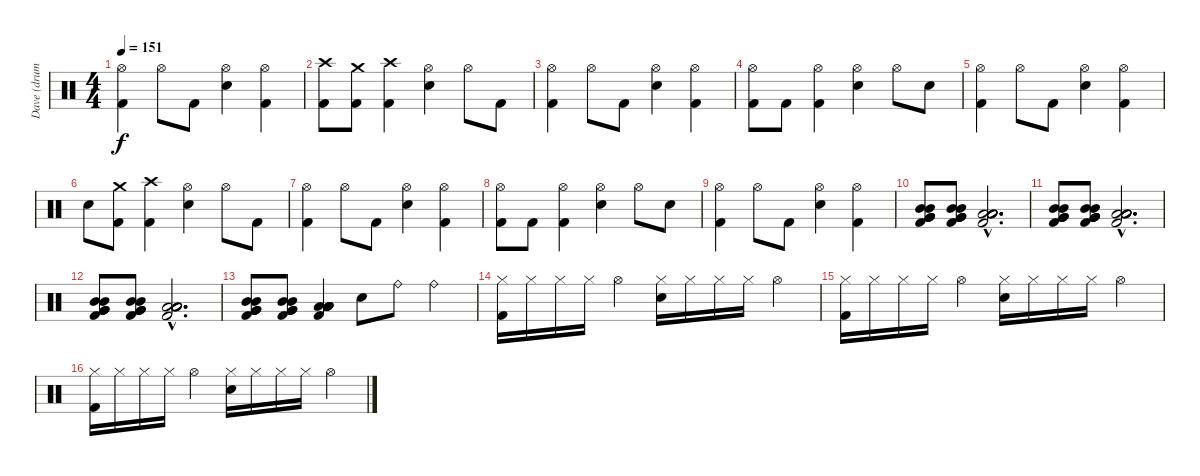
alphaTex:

\track ("Dave (drums)" "Dave (drum") {instrument percussion}
\staff {score}
\articulation defaults
\ts (4 4)
\tempo 151
\clef neutral
\ks c
("Hi-Hat (open)" "Kick (hit) 2").4{dy f} "Hi-Hat (open)".8 "Kick (hit) 2".8 ("Hi-Hat (open)" "Electric Snare (hit)").4 ("Hi-Hat (open)" "Kick (hit) 2").4 |
("Crash high (hit)" "Kick (hit) 2").8 ("Crash medium (hit)" "Kick (hit) 2").8 ("Crash high (hit)" "Kick (hit) 2").4 ("Hi-Hat (open)" "Electric Snare (hit)").4 "Hi-Hat (open)".8 "Kick (hit) 2".8 |
("Hi-Hat (open)" "Kick (hit) 2").4 "Hi-Hat (open)".8 "Kick (hit) 2".8 ("Hi-Hat (open)" "Electric Snare (hit)").4 ("Hi-Hat (open)" "Kick (hit) 2").4 |
("Hi-Hat (open)" "Kick (hit) 2").8 "Kick (hit) 2".8 ("Hi-Hat (open)" "Kick (hit) 2").4 ("Hi-Hat (open)" "Electric Snare (hit)").4 "Hi-Hat (open)".8 "Electric Snare (hit)".8 |
("Hi-Hat (open)" "Kick (hit) 2").4 "Hi-Hat (open)".8 "Kick (hit) 2".8 ("Hi-Hat (open)" "Electric Snare (hit)").4 ("Hi-Hat (open)" "Kick (hit) 2").4 |
"Electric Snare (hit)".8 ("Crash medium (hit)" "Kick (hit) 2").8 ("Crash high (hit)" "Kick (hit) 2").4 ("Hi-Hat (open)" "Electric Snare (hit)").4 "Hi-Hat (open)".8 "Kick (hit) 2".8 |
("Hi-Hat (open)" "Kick (hit) 2").4 "Hi-Hat (open)".8 "Kick (hit) 2".8 ("Hi-Hat (open)" "Electric Snare (hit)").4 ("Hi-Hat (open)" "Kick (hit) 2").4 |
("Hi-Hat (open)" "Kick (hit) 2").8 "Kick (hit) 2".8 ("Hi-Hat (open)" "Kick (hit) 2").4 ("Hi-Hat (open)" "Electric Snare (hit)").4 "Hi-Hat (open)".8 "Electric Snare (hit)".8 |
("Hi-Hat (open)" "Kick (hit) 2").4 "Hi-Hat (open)".8 "Kick (hit) 2".8 ("Hi-Hat (open)" "Electric Snare (hit)").4 ("Hi-Hat (open)" "Kick (hit) 2").4 |
("Very Low Tom (hit)" "Very Low Tom (hit)" "Very Low Tom (hit)" "Mid Tom (hit)" "Mid Tom (hit)" "Kick (hit) 2").8 ("Very Low Tom (hit)" "Very Low Tom (hit)" "Very Low Tom (hit)" "Mid Tom (hit)" "Mid Tom (hit)" "Kick (hit) 2").8 ("Low Floor Tom (hit)"{hac} "Low Floor Tom (hit)"{hac} "Low Floor Tom (hit)"{hac} "Low Tom (hit)"{hac} "Low Tom (hit)"{hac} "Kick (hit) 2"{hac}).2{d} |
("Very Low Tom (hit)" "Very Low Tom (hit)" "Very Low Tom (hit)" "Mid Tom (hit)" "Mid Tom (hit)" "Kick (hit) 2").8 ("Very Low Tom (hit)" "Very Low Tom (hit)" "Very Low Tom (hit)" "Mid Tom (hit)" "Mid Tom (hit)" "Kick (hit) 2").8 ("Low Floor Tom (hit)"{hac} "Low Floor Tom (hit)"{hac} "Low Floor Tom (hit)"{hac} "Low Tom (hit)"{hac} "Low Tom (hit)"{hac} "Kick (hit) 2"{hac}).2{d} |
("Very Low Tom (hit)" "Very Low Tom (hit)" "Very Low Tom (hit)" "Mid Tom (hit)" "Mid Tom (hit)" "Kick (hit) 2").8 ("Very Low Tom (hit)" "Very Low Tom (hit)" "Very Low Tom (hit)" "Mid Tom (hit)" "Mid Tom (hit)" "Kick (hit) 2").8 ("Low Floor Tom (hit)"{hac} "Low Floor Tom (hit)"{hac} "Low Floor Tom (hit)"{hac} "Low Tom (hit)"{hac} "Low Tom (hit)"{hac} "Kick (hit) 2"{hac}).2{d} |
("Very Low Tom (hit)" "Very Low Tom (hit)" "Very Low Tom (hit)" "Mid Tom (hit)" "Mid Tom (hit)" "Kick (hit) 2").8 ("Very Low Tom (hit)" "Very Low Tom (hit)" "Very Low Tom (hit)" "Mid Tom (hit)" "Mid Tom (hit)" "Kick (hit) 2").8 ("Low Floor Tom (hit)" "Low Floor Tom (hit)" "Low Floor Tom (hit)" "Low Tom (hit)" "Low Tom (hit)" "Kick (hit) 2").4 "Electric Snare (hit)".8 "Ride (bell)".8 "Ride (bell)".4 |
("Hi-Hat (closed)" "Kick (hit) 2").16 "Hi-Hat (closed)".16 "Hi-Hat (closed)".16 "Hi-Hat (closed)".16 "Hi-Hat (open)".4 ("Hi-Hat (closed)" "Electric Snare (hit)").16 "Hi-Hat (closed)".16 "Hi-Hat (closed)".16 "Hi-Hat (closed)".16 "Hi-Hat (open)".4 |
("Hi-Hat (closed)" "Kick (hit) 2").16 "Hi-Hat (closed)".16 "Hi-Hat (closed)".16 "Hi-Hat (closed)".16 "Hi-Hat (open)".4 ("Hi-Hat (closed)" "Electric Snare (hit)").16 "Hi-Hat (closed)".16 "Hi-Hat (closed)".16 "Hi-Hat (closed)".16 "Hi-Hat (open)".4 |
("Hi-Hat (closed)" "Kick (hit) 2").16 "Hi-Hat (closed)".16 "Hi-Hat (closed)".16 "Hi-Hat (closed)".16 "Hi-Hat (open)".4 ("Hi-Hat (closed)" "Electric Snare (hit)").16 "Hi-Hat (closed)".16 "Hi-Hat (closed)".16 "Hi-Hat (closed)".16 "Hi-Hat (open)".4
